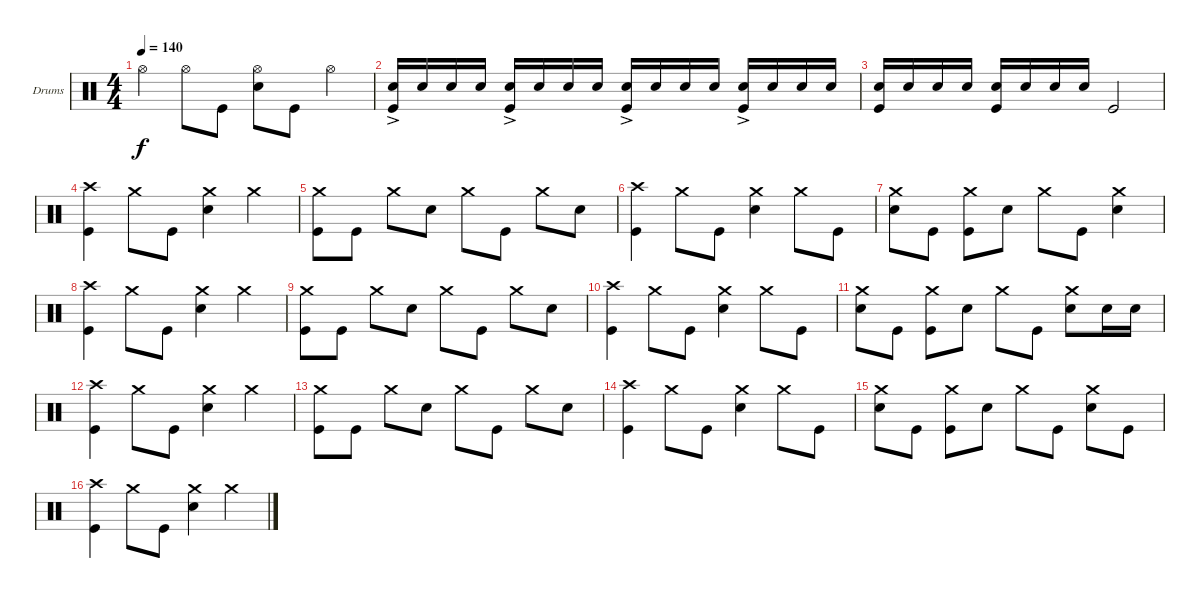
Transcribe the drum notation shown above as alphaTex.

\defaultSystemsLayout 4
\bracketExtendMode groupsimilarinstruments
\firstSystemTrackNameOrientation horizontal
\otherSystemsTrackNameOrientation horizontal
\track ("Drumkit" "Drums") {instrument percussion}
\staff {score}
\articulation defaults
\ts (4 4)
\tempo 140
\clef neutral
\ks c "Hi-Hat (open)".4{dy f} "Hi-Hat (open)".8 "Kick (hit)".8
("Hi-Hat (open)" "Snare (hit) 2").8 "Kick (hit)".8 "Hi-Hat (open)".4 |
("Snare (hit) 2"{ac} "Kick (hit)").16 "Snare (hit) 2".16 "Snare (hit) 2".16 "Snare (hit) 2".16 ("Snare (hit) 2"{ac} "Kick (hit)").16 "Snare (hit) 2".16 "Snare (hit) 2".16 "Snare (hit) 2".16 ("Snare (hit) 2"{ac} "Kick (hit)").16 "Snare (hit) 2".16 "Snare (hit) 2".16 "Snare (hit) 2".16 ("Snare (hit) 2"{ac} "Kick (hit)").16 "Snare (hit) 2".16 "Snare (hit) 2".16 "Snare (hit) 2".16 |
("Snare (hit) 2" "Kick (hit)").16 "Snare (hit) 2".16 "Snare (hit) 2".16 "Snare (hit) 2".16 ("Snare (hit) 2" "Kick (hit)").16 "Snare (hit) 2".16 "Snare (hit) 2".16 "Snare (hit) 2".16 "Kick (hit)".2 |
("Crash high (hit)" "Kick (hit)").4 "Crash medium (hit)".8 "Kick (hit)".8 ("Crash medium (hit)" "Snare (hit) 2").4 "Crash medium (hit)".4 |
("Crash medium (hit)" "Kick (hit)").8 "Kick (hit)".8 "Crash medium (hit)".8 "Snare (hit) 2".8 "Crash medium (hit)".8 "Kick (hit)".8 "Crash medium (hit)".8 "Snare (hit) 2".8 |
("Crash high (hit)" "Kick (hit)").4 "Crash medium (hit)".8 "Kick (hit)".8 ("Crash medium (hit)" "Snare (hit) 2").4 "Crash medium (hit)".8 "Kick (hit)".8 |
("Crash medium (hit)" "Snare (hit) 2").8 "Kick (hit)".8 ("Crash medium (hit)" "Kick (hit)").8 "Snare (hit) 2".8 "Crash medium (hit)".8 "Kick (hit)".8 ("Crash medium (hit)" "Snare (hit) 2").4 |
("Crash high (hit)" "Kick (hit)").4 "Crash medium (hit)".8 "Kick (hit)".8 ("Crash medium (hit)" "Snare (hit) 2").4 "Crash medium (hit)".4 |
("Crash medium (hit)" "Kick (hit)").8 "Kick (hit)".8 "Crash medium (hit)".8 "Snare (hit) 2".8 "Crash medium (hit)".8 "Kick (hit)".8 "Crash medium (hit)".8 "Snare (hit) 2".8 |
("Crash high (hit)" "Kick (hit)").4 "Crash medium (hit)".8 "Kick (hit)".8 ("Crash medium (hit)" "Snare (hit) 2").4 "Crash medium (hit)".8 "Kick (hit)".8 |
("Crash medium (hit)" "Snare (hit) 2").8 "Kick (hit)".8 ("Crash medium (hit)" "Kick (hit)").8 "Snare (hit) 2".8 "Crash medium (hit)".8 "Kick (hit)".8 ("Crash medium (hit)" "Snare (hit) 2").8 "Snare (hit) 2".16 "Snare (hit) 2".16 |
("Crash high (hit)" "Kick (hit)").4 "Crash medium (hit)".8 "Kick (hit)".8 ("Crash medium (hit)" "Snare (hit) 2").4 "Crash medium (hit)".4 |
("Crash medium (hit)" "Kick (hit)").8 "Kick (hit)".8 "Crash medium (hit)".8 "Snare (hit) 2".8 "Crash medium (hit)".8 "Kick (hit)".8 "Crash medium (hit)".8 "Snare (hit) 2".8 |
("Crash high (hit)" "Kick (hit)").4 "Crash medium (hit)".8 "Kick (hit)".8 ("Crash medium (hit)" "Snare (hit) 2").4 "Crash medium (hit)".8 "Kick (hit)".8 |
("Crash medium (hit)" "Snare (hit) 2").8 "Kick (hit)".8 ("Crash medium (hit)" "Kick (hit)").8 "Snare (hit) 2".8 "Crash medium (hit)".8 "Kick (hit)".8 ("Crash medium (hit)" "Snare (hit) 2").8 "Kick (hit)".8 |
("Crash high (hit)" "Kick (hit)").4 "Crash medium (hit)".8 "Kick (hit)".8 ("Crash medium (hit)" "Snare (hit) 2").4 "Crash medium (hit)".4
